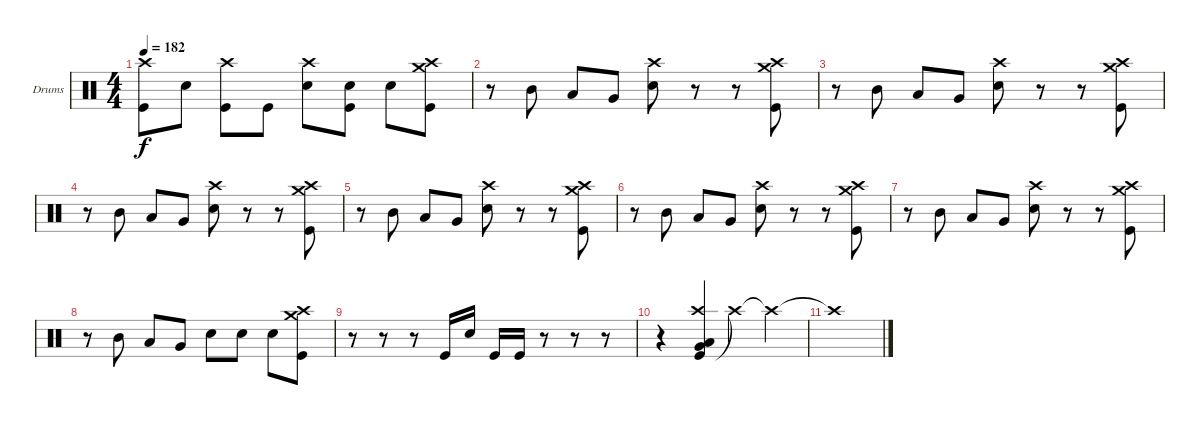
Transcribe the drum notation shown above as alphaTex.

\defaultSystemsLayout 4
\bracketExtendMode groupsimilarinstruments
\firstSystemTrackNameOrientation horizontal
\otherSystemsTrackNameOrientation horizontal
\track ("Drumkit" "Drums") {instrument percussion}
\staff {score}
\articulation defaults
\ts (4 4)
\tempo 182
\clef neutral
\ks c
("Kick (hit)" "Crash high (hit)").8{dy f} "Snare (hit) 2".8 ("Kick (hit)" "Crash high (hit)").8 "Kick (hit)".8 ("Snare (hit) 2" "Crash high (hit)").8 ("Kick (hit)" "Snare (hit) 2").8 "Snare (hit) 2".8 ("Kick (hit)" "Crash high (hit)" "Crash medium (hit)").8 |
r.8 "Mid Tom (hit)".8 "Low Tom (hit)".8 "Very Low Tom (hit)".8 ("Snare (hit) 2" "Crash high (hit)").8 r.8 r.8 ("Kick (hit)" "Crash high (hit)" "Crash medium (hit)").8 |
r.8 "Mid Tom (hit)".8 "Low Tom (hit)".8 "Very Low Tom (hit)".8 ("Snare (hit) 2" "Crash high (hit)").8 r.8 r.8 ("Kick (hit)" "Crash high (hit)" "Crash medium (hit)").8 |
r.8 "Mid Tom (hit)".8 "Low Tom (hit)".8 "Very Low Tom (hit)".8 ("Snare (hit) 2" "Crash high (hit)").8 r.8 r.8 ("Kick (hit)" "Crash high (hit)" "Crash medium (hit)").8 |
r.8 "Mid Tom (hit)".8 "Low Tom (hit)".8 "Very Low Tom (hit)".8 ("Snare (hit) 2" "Crash high (hit)").8 r.8 r.8 ("Kick (hit)" "Crash high (hit)" "Crash medium (hit)").8 |
r.8 "Mid Tom (hit)".8 "Low Tom (hit)".8 "Very Low Tom (hit)".8 ("Snare (hit) 2" "Crash high (hit)").8 r.8 r.8 ("Kick (hit)" "Crash high (hit)" "Crash medium (hit)").8 |
r.8 "Mid Tom (hit)".8 "Low Tom (hit)".8 "Very Low Tom (hit)".8 ("Snare (hit) 2" "Crash high (hit)").8 r.8 r.8 ("Kick (hit)" "Crash high (hit)" "Crash medium (hit)").8 |
r.8 "Mid Tom (hit)".8 "Low Tom (hit)".8 "Very Low Tom (hit)".8 "Snare (hit) 2".8 "Snare (hit) 2".8 "Snare (hit) 2".8 ("Kick (hit)" "Crash high (hit)" "Crash medium (hit)").8 |
r.8 r.8 r.8 "Kick (hit)".16 "Snare (hit) 2".16 "Kick (hit)".16 "Kick (hit)".16 r.8 r.8 r.8 |
r.4 ("Kick (hit)" "Very Low Tom (hit)" "Low Tom (hit)" "Crash high (hit)").4 "Crash high (hit)"{t}.4 "Crash high (hit)"{t}.4 |
"Crash high (hit)"{t}.1
